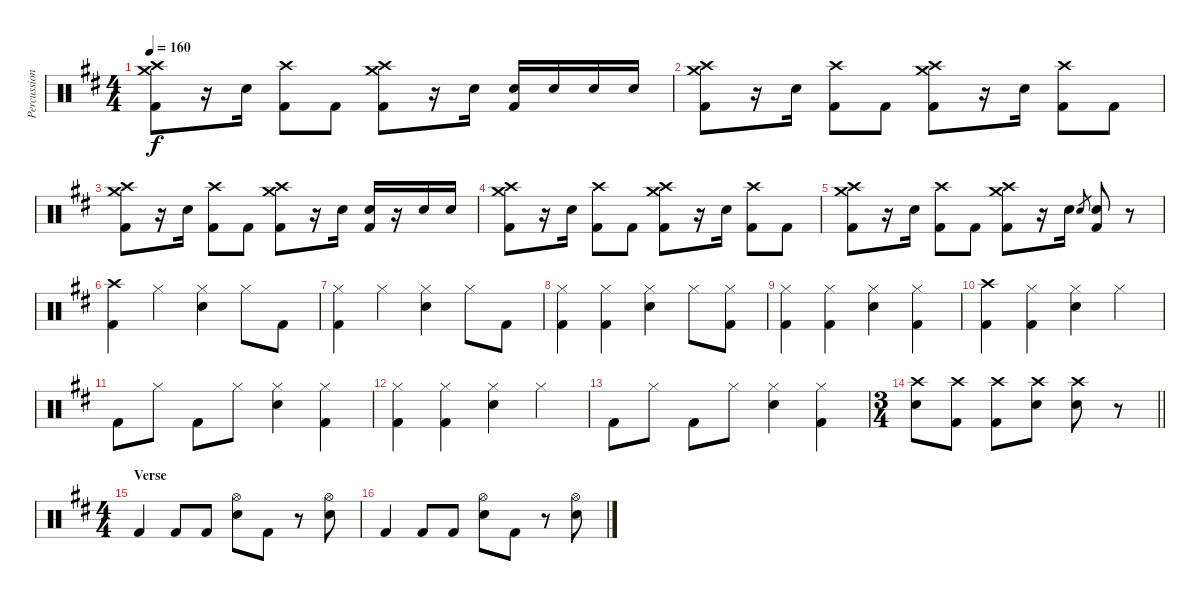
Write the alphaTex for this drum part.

\track ("Percussion" "Percussion") {instrument percussion}
\staff {score}
\articulation defaults
\ts (4 4)
\tempo 160
\clef neutral
\ks d
("Crash medium (hit)" "Crash high (hit)" "Kick (hit) 2").8{dy f} r.16 "Electric Snare (hit)".16 ("Crash high (hit)" "Kick (hit) 2").8 "Kick (hit) 2".8 ("Crash medium (hit)" "Crash high (hit)" "Kick (hit) 2").8 r.16 "Electric Snare (hit)".16 ("Electric Snare (hit)" "Kick (hit) 2").16 "Electric Snare (hit)".16 "Electric Snare (hit)".16 "Electric Snare (hit)".16 |
("Crash medium (hit)" "Crash high (hit)" "Kick (hit) 2").8 r.16 "Electric Snare (hit)".16 ("Crash high (hit)" "Kick (hit) 2").8 "Kick (hit) 2".8 ("Crash medium (hit)" "Crash high (hit)" "Kick (hit) 2").8 r.16 "Electric Snare (hit)".16 ("Crash high (hit)" "Kick (hit) 2").8 "Kick (hit) 2".8 |
("Crash medium (hit)" "Crash high (hit)" "Kick (hit) 2").8 r.16 "Electric Snare (hit)".16 ("Crash high (hit)" "Kick (hit) 2").8 "Kick (hit) 2".8 ("Crash medium (hit)" "Crash high (hit)" "Kick (hit) 2").8 r.16 "Electric Snare (hit)".16 ("Electric Snare (hit)" "Kick (hit) 2").16 r.16 "Electric Snare (hit)".16 "Electric Snare (hit)".16 |
("Crash medium (hit)" "Crash high (hit)" "Kick (hit) 2").8 r.16 "Electric Snare (hit)".16 ("Crash high (hit)" "Kick (hit) 2").8 "Kick (hit) 2".8 ("Crash medium (hit)" "Crash high (hit)" "Kick (hit) 2").8 r.16 "Electric Snare (hit)".16 ("Crash high (hit)" "Kick (hit) 2").8 "Kick (hit) 2".8 |
("Crash medium (hit)" "Crash high (hit)" "Kick (hit) 2").8 r.16 "Electric Snare (hit)".16 ("Crash high (hit)" "Kick (hit) 2").8 "Kick (hit) 2".8 ("Crash medium (hit)" "Crash high (hit)" "Kick (hit) 2").8 r.16 "Electric Snare (hit)".16 "Electric Snare (hit)".8{gr} ("Electric Snare (hit)" "Kick (hit) 2").8 r.8 |
("Crash high (hit)" "Kick (hit) 2").4 "Hi-Hat (closed)".4 ("Hi-Hat (closed)" "Electric Snare (hit)").4 "Hi-Hat (closed)".8 "Kick (hit) 2".8 |
("Hi-Hat (closed)" "Kick (hit) 2").4 "Hi-Hat (closed)".4 ("Hi-Hat (closed)" "Electric Snare (hit)").4 "Hi-Hat (closed)".8 "Kick (hit) 2".8 |
("Hi-Hat (closed)" "Kick (hit) 2").4 ("Hi-Hat (closed)" "Kick (hit) 2").4 ("Hi-Hat (closed)" "Electric Snare (hit)").4 "Hi-Hat (closed)".8 ("Hi-Hat (closed)" "Kick (hit) 2").8 |
("Hi-Hat (closed)" "Kick (hit) 2").4 ("Hi-Hat (closed)" "Kick (hit) 2").4 ("Hi-Hat (closed)" "Electric Snare (hit)").4 ("Hi-Hat (closed)" "Kick (hit) 2").4 |
("Crash high (hit)" "Kick (hit) 2").4 ("Hi-Hat (closed)" "Kick (hit) 2").4 ("Hi-Hat (closed)" "Electric Snare (hit)").4 "Hi-Hat (closed)".4 |
"Kick (hit) 2".8 "Hi-Hat (closed)".8 "Kick (hit) 2".8 "Hi-Hat (closed)".8 ("Hi-Hat (closed)" "Electric Snare (hit)").4 ("Hi-Hat (closed)" "Kick (hit) 2").4 |
("Hi-Hat (closed)" "Kick (hit) 2").4 ("Hi-Hat (closed)" "Kick (hit) 2").4 ("Hi-Hat (closed)" "Electric Snare (hit)").4 "Hi-Hat (closed)".4 |
"Kick (hit) 2".8 "Hi-Hat (closed)".8 "Kick (hit) 2".8 "Hi-Hat (closed)".8 ("Hi-Hat (closed)" "Electric Snare (hit)").4 ("Hi-Hat (closed)" "Kick (hit) 2").4 |
\ts (3 4)
\barLineRight lightlight
("Crash high (hit)" "Electric Snare (hit)").8 ("Crash high (hit)" "Kick (hit) 2").8 ("Crash high (hit)" "Kick (hit) 2").8 ("Crash high (hit)" "Electric Snare (hit)").8 ("Crash high (hit)" "Electric Snare (hit)").8 r.8 |
\ts (4 4)
\section ("" "Verse")
"Kick (hit) 2".4 "Kick (hit) 2".8 "Kick (hit) 2".8 ("Hi-Hat (open)" "Electric Snare (hit)").8 "Kick (hit) 2".8 r.8 ("Hi-Hat (open)" "Electric Snare (hit)").8 |
"Kick (hit) 2".4 "Kick (hit) 2".8 "Kick (hit) 2".8 ("Hi-Hat (open)" "Electric Snare (hit)").8 "Kick (hit) 2".8 r.8 ("Hi-Hat (open)" "Electric Snare (hit)").8
